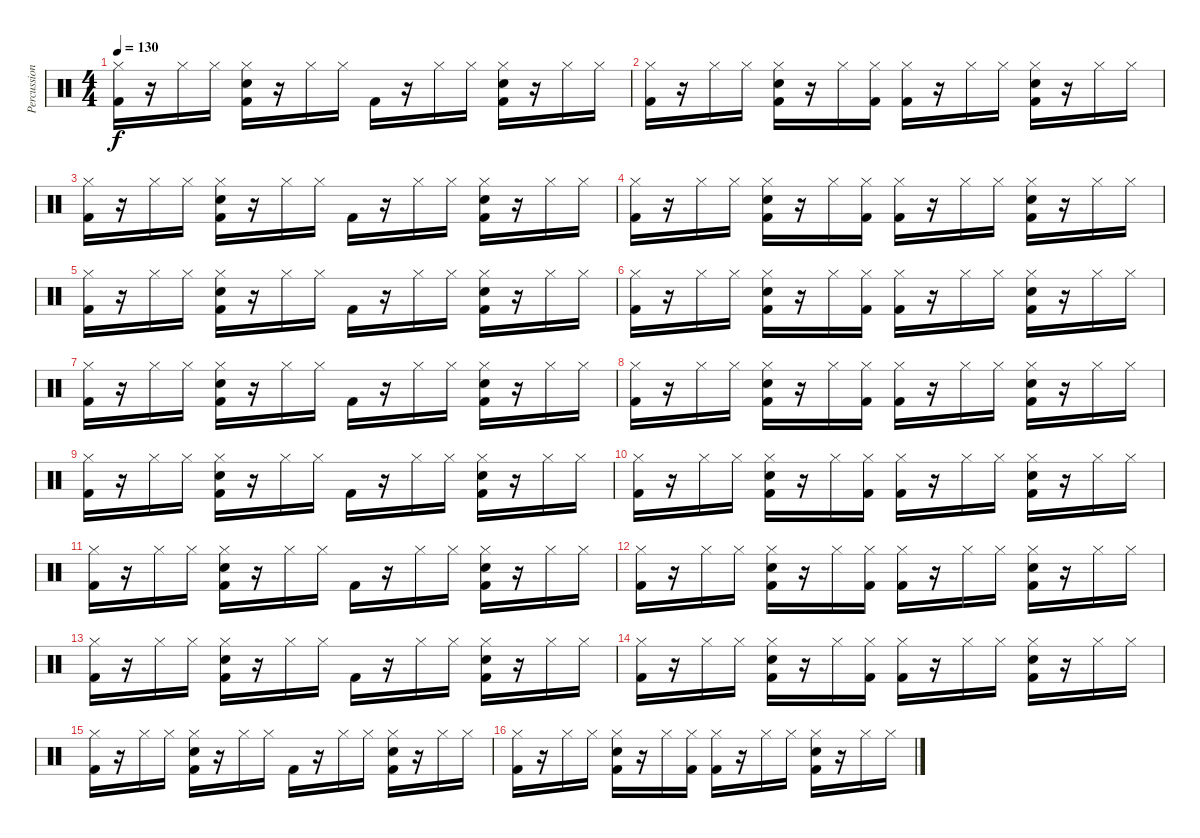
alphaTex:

\track ("Percussion" "Percussion") {instrument percussion}
\staff {score}
\articulation defaults
\ts (4 4)
\tempo 130
\clef neutral
\ks c
("Hi-Hat (closed)" "Kick (hit) 2").16{dy f} r.16 "Hi-Hat (closed)".16 "Hi-Hat (closed)".16 ("Hi-Hat (closed)" "Electric Snare (hit)" "Kick (hit) 2").16 r.16 "Hi-Hat (closed)".16 "Hi-Hat (closed)".16 "Kick (hit) 2".16 r.16 "Hi-Hat (closed)".16 "Hi-Hat (closed)".16 ("Hi-Hat (closed)" "Electric Snare (hit)" "Kick (hit) 2").16 r.16 "Hi-Hat (closed)".16 "Hi-Hat (closed)".16 |
("Hi-Hat (closed)" "Kick (hit) 2").16 r.16 "Hi-Hat (closed)".16 "Hi-Hat (closed)".16 ("Hi-Hat (closed)" "Electric Snare (hit)" "Kick (hit) 2").16 r.16 "Hi-Hat (closed)".16 ("Hi-Hat (closed)" "Kick (hit) 2").16 ("Hi-Hat (closed)" "Kick (hit) 2").16 r.16 "Hi-Hat (closed)".16 "Hi-Hat (closed)".16 ("Hi-Hat (closed)" "Electric Snare (hit)" "Kick (hit) 2").16 r.16 "Hi-Hat (closed)".16 "Hi-Hat (closed)".16 |
("Hi-Hat (closed)" "Kick (hit) 2").16 r.16 "Hi-Hat (closed)".16 "Hi-Hat (closed)".16 ("Hi-Hat (closed)" "Electric Snare (hit)" "Kick (hit) 2").16 r.16 "Hi-Hat (closed)".16 "Hi-Hat (closed)".16 "Kick (hit) 2".16 r.16 "Hi-Hat (closed)".16 "Hi-Hat (closed)".16 ("Hi-Hat (closed)" "Electric Snare (hit)" "Kick (hit) 2").16 r.16 "Hi-Hat (closed)".16 "Hi-Hat (closed)".16 |
("Hi-Hat (closed)" "Kick (hit) 2").16 r.16 "Hi-Hat (closed)".16 "Hi-Hat (closed)".16 ("Hi-Hat (closed)" "Electric Snare (hit)" "Kick (hit) 2").16 r.16 "Hi-Hat (closed)".16 ("Hi-Hat (closed)" "Kick (hit) 2").16 ("Hi-Hat (closed)" "Kick (hit) 2").16 r.16 "Hi-Hat (closed)".16 "Hi-Hat (closed)".16 ("Hi-Hat (closed)" "Electric Snare (hit)" "Kick (hit) 2").16 r.16 "Hi-Hat (closed)".16 "Hi-Hat (closed)".16 |
("Hi-Hat (closed)" "Kick (hit) 2").16 r.16 "Hi-Hat (closed)".16 "Hi-Hat (closed)".16 ("Hi-Hat (closed)" "Electric Snare (hit)" "Kick (hit) 2").16 r.16 "Hi-Hat (closed)".16 "Hi-Hat (closed)".16 "Kick (hit) 2".16 r.16 "Hi-Hat (closed)".16 "Hi-Hat (closed)".16 ("Hi-Hat (closed)" "Electric Snare (hit)" "Kick (hit) 2").16 r.16 "Hi-Hat (closed)".16 "Hi-Hat (closed)".16 |
("Hi-Hat (closed)" "Kick (hit) 2").16 r.16 "Hi-Hat (closed)".16 "Hi-Hat (closed)".16 ("Hi-Hat (closed)" "Electric Snare (hit)" "Kick (hit) 2").16 r.16 "Hi-Hat (closed)".16 ("Hi-Hat (closed)" "Kick (hit) 2").16 ("Hi-Hat (closed)" "Kick (hit) 2").16 r.16 "Hi-Hat (closed)".16 "Hi-Hat (closed)".16 ("Hi-Hat (closed)" "Electric Snare (hit)" "Kick (hit) 2").16 r.16 "Hi-Hat (closed)".16 "Hi-Hat (closed)".16 |
("Hi-Hat (closed)" "Kick (hit) 2").16 r.16 "Hi-Hat (closed)".16 "Hi-Hat (closed)".16 ("Hi-Hat (closed)" "Electric Snare (hit)" "Kick (hit) 2").16 r.16 "Hi-Hat (closed)".16 "Hi-Hat (closed)".16 "Kick (hit) 2".16 r.16 "Hi-Hat (closed)".16 "Hi-Hat (closed)".16 ("Hi-Hat (closed)" "Electric Snare (hit)" "Kick (hit) 2").16 r.16 "Hi-Hat (closed)".16 "Hi-Hat (closed)".16 |
("Hi-Hat (closed)" "Kick (hit) 2").16 r.16 "Hi-Hat (closed)".16 "Hi-Hat (closed)".16 ("Hi-Hat (closed)" "Electric Snare (hit)" "Kick (hit) 2").16 r.16 "Hi-Hat (closed)".16 ("Hi-Hat (closed)" "Kick (hit) 2").16 ("Hi-Hat (closed)" "Kick (hit) 2").16 r.16 "Hi-Hat (closed)".16 "Hi-Hat (closed)".16 ("Hi-Hat (closed)" "Electric Snare (hit)" "Kick (hit) 2").16 r.16 "Hi-Hat (closed)".16 "Hi-Hat (closed)".16 |
("Hi-Hat (closed)" "Kick (hit) 2").16 r.16 "Hi-Hat (closed)".16 "Hi-Hat (closed)".16 ("Hi-Hat (closed)" "Electric Snare (hit)" "Kick (hit) 2").16 r.16 "Hi-Hat (closed)".16 "Hi-Hat (closed)".16 "Kick (hit) 2".16 r.16 "Hi-Hat (closed)".16 "Hi-Hat (closed)".16 ("Hi-Hat (closed)" "Electric Snare (hit)" "Kick (hit) 2").16 r.16 "Hi-Hat (closed)".16 "Hi-Hat (closed)".16 |
("Hi-Hat (closed)" "Kick (hit) 2").16 r.16 "Hi-Hat (closed)".16 "Hi-Hat (closed)".16 ("Hi-Hat (closed)" "Electric Snare (hit)" "Kick (hit) 2").16 r.16 "Hi-Hat (closed)".16 ("Hi-Hat (closed)" "Kick (hit) 2").16 ("Hi-Hat (closed)" "Kick (hit) 2").16 r.16 "Hi-Hat (closed)".16 "Hi-Hat (closed)".16 ("Hi-Hat (closed)" "Electric Snare (hit)" "Kick (hit) 2").16 r.16 "Hi-Hat (closed)".16 "Hi-Hat (closed)".16 |
("Hi-Hat (closed)" "Kick (hit) 2").16 r.16 "Hi-Hat (closed)".16 "Hi-Hat (closed)".16 ("Hi-Hat (closed)" "Electric Snare (hit)" "Kick (hit) 2").16 r.16 "Hi-Hat (closed)".16 "Hi-Hat (closed)".16 "Kick (hit) 2".16 r.16 "Hi-Hat (closed)".16 "Hi-Hat (closed)".16 ("Hi-Hat (closed)" "Electric Snare (hit)" "Kick (hit) 2").16 r.16 "Hi-Hat (closed)".16 "Hi-Hat (closed)".16 |
("Hi-Hat (closed)" "Kick (hit) 2").16 r.16 "Hi-Hat (closed)".16 "Hi-Hat (closed)".16 ("Hi-Hat (closed)" "Electric Snare (hit)" "Kick (hit) 2").16 r.16 "Hi-Hat (closed)".16 ("Hi-Hat (closed)" "Kick (hit) 2").16 ("Hi-Hat (closed)" "Kick (hit) 2").16 r.16 "Hi-Hat (closed)".16 "Hi-Hat (closed)".16 ("Hi-Hat (closed)" "Electric Snare (hit)" "Kick (hit) 2").16 r.16 "Hi-Hat (closed)".16 "Hi-Hat (closed)".16 |
("Hi-Hat (closed)" "Kick (hit) 2").16 r.16 "Hi-Hat (closed)".16 "Hi-Hat (closed)".16 ("Hi-Hat (closed)" "Electric Snare (hit)" "Kick (hit) 2").16 r.16 "Hi-Hat (closed)".16 "Hi-Hat (closed)".16 "Kick (hit) 2".16 r.16 "Hi-Hat (closed)".16 "Hi-Hat (closed)".16 ("Hi-Hat (closed)" "Electric Snare (hit)" "Kick (hit) 2").16 r.16 "Hi-Hat (closed)".16 "Hi-Hat (closed)".16 |
("Hi-Hat (closed)" "Kick (hit) 2").16 r.16 "Hi-Hat (closed)".16 "Hi-Hat (closed)".16 ("Hi-Hat (closed)" "Electric Snare (hit)" "Kick (hit) 2").16 r.16 "Hi-Hat (closed)".16 ("Hi-Hat (closed)" "Kick (hit) 2").16 ("Hi-Hat (closed)" "Kick (hit) 2").16 r.16 "Hi-Hat (closed)".16 "Hi-Hat (closed)".16 ("Hi-Hat (closed)" "Electric Snare (hit)" "Kick (hit) 2").16 r.16 "Hi-Hat (closed)".16 "Hi-Hat (closed)".16 |
("Hi-Hat (closed)" "Kick (hit) 2").16 r.16 "Hi-Hat (closed)".16 "Hi-Hat (closed)".16 ("Hi-Hat (closed)" "Electric Snare (hit)" "Kick (hit) 2").16 r.16 "Hi-Hat (closed)".16 "Hi-Hat (closed)".16 "Kick (hit) 2".16 r.16 "Hi-Hat (closed)".16 "Hi-Hat (closed)".16 ("Hi-Hat (closed)" "Electric Snare (hit)" "Kick (hit) 2").16 r.16 "Hi-Hat (closed)".16 "Hi-Hat (closed)".16 |
("Hi-Hat (closed)" "Kick (hit) 2").16 r.16 "Hi-Hat (closed)".16 "Hi-Hat (closed)".16 ("Hi-Hat (closed)" "Electric Snare (hit)" "Kick (hit) 2").16 r.16 "Hi-Hat (closed)".16 ("Hi-Hat (closed)" "Kick (hit) 2").16 ("Hi-Hat (closed)" "Kick (hit) 2").16 r.16 "Hi-Hat (closed)".16 "Hi-Hat (closed)".16 ("Hi-Hat (closed)" "Electric Snare (hit)" "Kick (hit) 2").16 r.16 "Hi-Hat (closed)".16 "Hi-Hat (closed)".16
